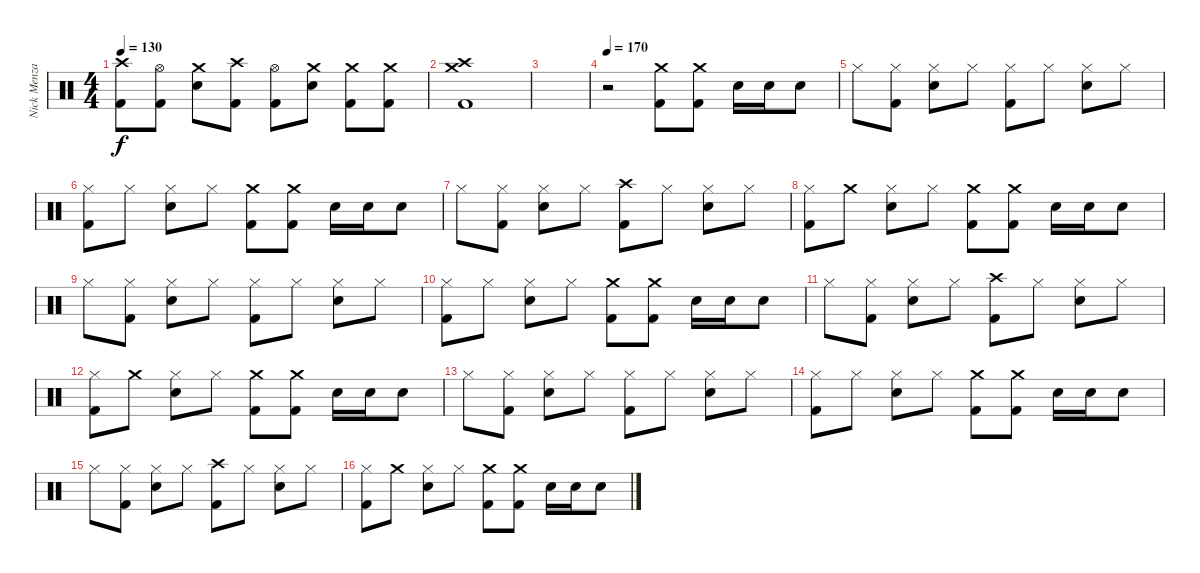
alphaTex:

\track ("Nick Menza" "Nick Menza") {instrument percussion}
\staff {score}
\articulation defaults
\ts (4 4)
\tempo 130
\clef neutral
\ks c
("Crash high (hit)" "Kick (hit) 2").8{dy f} ("Hi-Hat (open)" "Kick (hit) 2").8 ("Crash medium (hit)" "Electric Snare (hit)").8 ("Crash high (hit)" "Kick (hit) 2").8 ("Hi-Hat (open)" "Kick (hit) 2").8 ("Crash medium (hit)" "Electric Snare (hit)").8 ("Crash medium (hit)" "Kick (hit) 2").8 ("Crash medium (hit)" "Kick (hit) 2").8 |
("Crash high (hit)" "Crash medium (hit)" "Kick (hit) 2").1 |
|
\tempo 170
r.2 ("Crash medium (hit)" "Kick (hit) 2").8 ("Crash medium (hit)" "Kick (hit) 2").8 "Electric Snare (hit)".16 "Electric Snare (hit)".16 "Electric Snare (hit)".8 |
"Hi-Hat (closed)".8 ("Hi-Hat (closed)" "Kick (hit) 2").8 ("Hi-Hat (closed)" "Electric Snare (hit)").8 "Hi-Hat (closed)".8 ("Hi-Hat (closed)" "Kick (hit) 2").8 "Hi-Hat (closed)".8 ("Hi-Hat (closed)" "Electric Snare (hit)").8 "Hi-Hat (closed)".8 |
("Hi-Hat (closed)" "Kick (hit) 2").8 "Hi-Hat (closed)".8 ("Hi-Hat (closed)" "Electric Snare (hit)").8 "Hi-Hat (closed)".8 ("Crash medium (hit)" "Kick (hit) 2").8 ("Crash medium (hit)" "Kick (hit) 2").8 "Electric Snare (hit)".16 "Electric Snare (hit)".16 "Electric Snare (hit)".8 |
"Hi-Hat (closed)".8 ("Hi-Hat (closed)" "Kick (hit) 2").8 ("Hi-Hat (closed)" "Electric Snare (hit)").8 "Hi-Hat (closed)".8 ("Crash high (hit)" "Kick (hit) 2").8 "Hi-Hat (closed)".8 ("Hi-Hat (closed)" "Electric Snare (hit)").8 "Hi-Hat (closed)".8 |
("Hi-Hat (closed)" "Kick (hit) 2").8 "Crash medium (hit)".8 ("Hi-Hat (closed)" "Electric Snare (hit)").8 "Hi-Hat (closed)".8 ("Crash medium (hit)" "Kick (hit) 2").8 ("Crash medium (hit)" "Kick (hit) 2").8 "Electric Snare (hit)".16 "Electric Snare (hit)".16 "Electric Snare (hit)".8 |
"Hi-Hat (closed)".8 ("Hi-Hat (closed)" "Kick (hit) 2").8 ("Hi-Hat (closed)" "Electric Snare (hit)").8 "Hi-Hat (closed)".8 ("Hi-Hat (closed)" "Kick (hit) 2").8 "Hi-Hat (closed)".8 ("Hi-Hat (closed)" "Electric Snare (hit)").8 "Hi-Hat (closed)".8 |
("Hi-Hat (closed)" "Kick (hit) 2").8 "Hi-Hat (closed)".8 ("Hi-Hat (closed)" "Electric Snare (hit)").8 "Hi-Hat (closed)".8 ("Crash medium (hit)" "Kick (hit) 2").8 ("Crash medium (hit)" "Kick (hit) 2").8 "Electric Snare (hit)".16 "Electric Snare (hit)".16 "Electric Snare (hit)".8 |
"Hi-Hat (closed)".8 ("Hi-Hat (closed)" "Kick (hit) 2").8 ("Hi-Hat (closed)" "Electric Snare (hit)").8 "Hi-Hat (closed)".8 ("Crash high (hit)" "Kick (hit) 2").8 "Hi-Hat (closed)".8 ("Hi-Hat (closed)" "Electric Snare (hit)").8 "Hi-Hat (closed)".8 |
("Hi-Hat (closed)" "Kick (hit) 2").8 "Crash medium (hit)".8 ("Hi-Hat (closed)" "Electric Snare (hit)").8 "Hi-Hat (closed)".8 ("Crash medium (hit)" "Kick (hit) 2").8 ("Crash medium (hit)" "Kick (hit) 2").8 "Electric Snare (hit)".16 "Electric Snare (hit)".16 "Electric Snare (hit)".8 |
"Hi-Hat (closed)".8 ("Hi-Hat (closed)" "Kick (hit) 2").8 ("Hi-Hat (closed)" "Electric Snare (hit)").8 "Hi-Hat (closed)".8 ("Hi-Hat (closed)" "Kick (hit) 2").8 "Hi-Hat (closed)".8 ("Hi-Hat (closed)" "Electric Snare (hit)").8 "Hi-Hat (closed)".8 |
("Hi-Hat (closed)" "Kick (hit) 2").8 "Hi-Hat (closed)".8 ("Hi-Hat (closed)" "Electric Snare (hit)").8 "Hi-Hat (closed)".8 ("Crash medium (hit)" "Kick (hit) 2").8 ("Crash medium (hit)" "Kick (hit) 2").8 "Electric Snare (hit)".16 "Electric Snare (hit)".16 "Electric Snare (hit)".8 |
"Hi-Hat (closed)".8 ("Hi-Hat (closed)" "Kick (hit) 2").8 ("Hi-Hat (closed)" "Electric Snare (hit)").8 "Hi-Hat (closed)".8 ("Crash high (hit)" "Kick (hit) 2").8 "Hi-Hat (closed)".8 ("Hi-Hat (closed)" "Electric Snare (hit)").8 "Hi-Hat (closed)".8 |
("Hi-Hat (closed)" "Kick (hit) 2").8 "Crash medium (hit)".8 ("Hi-Hat (closed)" "Electric Snare (hit)").8 "Hi-Hat (closed)".8 ("Crash medium (hit)" "Kick (hit) 2").8 ("Crash medium (hit)" "Kick (hit) 2").8 "Electric Snare (hit)".16 "Electric Snare (hit)".16 "Electric Snare (hit)".8
